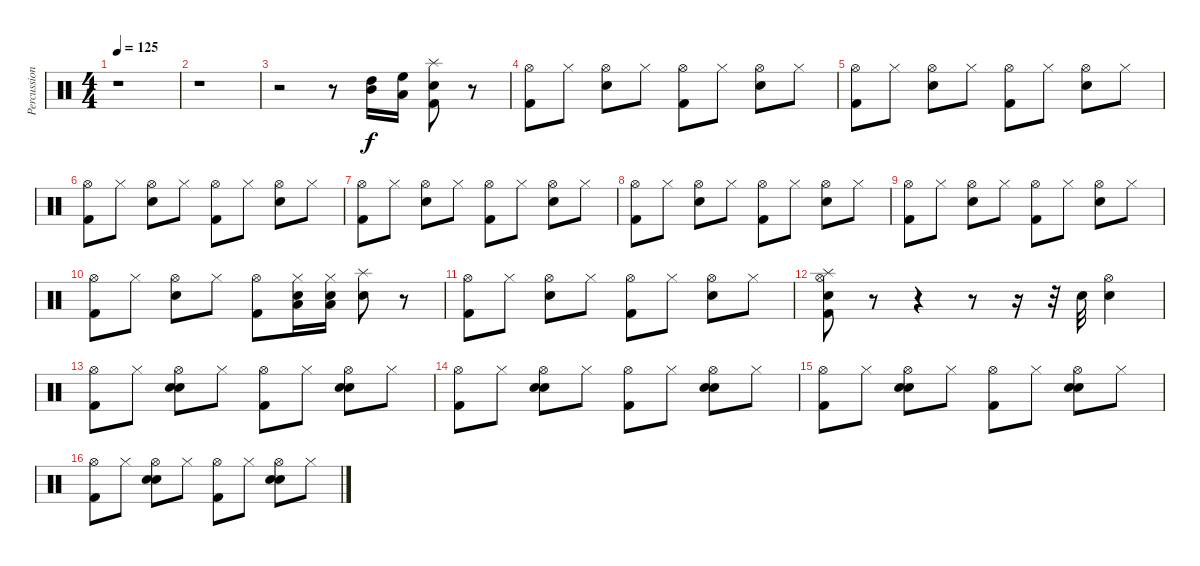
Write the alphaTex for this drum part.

\track ("Percussions" "Percussion") {instrument percussion}
\staff {score}
\articulation defaults
\ts (4 4)
\tempo 125
\clef neutral
\ks c
r.1{dy f} |
r.1 |
r.2 r.8 ("High Tom (hit)" "Mid Tom (hit)").16 ("High Floor Tom (hit)" "Low Tom (hit)").16 ("Splash (hit)" "Snare (hit) 2" "Kick (hit) 2").8 r.8 |
("Hi-Hat (open)" "Kick (hit) 2").8 "Hi-Hat (closed)".8 ("Hi-Hat (open)" "Snare (hit) 2").8 "Hi-Hat (closed)".8 ("Hi-Hat (open)" "Kick (hit) 2").8 "Hi-Hat (closed)".8 ("Hi-Hat (open)" "Snare (hit) 2").8 "Hi-Hat (closed)".8 |
("Hi-Hat (open)" "Kick (hit) 2").8 "Hi-Hat (closed)".8 ("Hi-Hat (open)" "Snare (hit) 2").8 "Hi-Hat (closed)".8 ("Hi-Hat (open)" "Kick (hit) 2").8 "Hi-Hat (closed)".8 ("Hi-Hat (open)" "Snare (hit) 2").8 "Hi-Hat (closed)".8 |
("Hi-Hat (open)" "Kick (hit) 2").8 "Hi-Hat (closed)".8 ("Hi-Hat (open)" "Snare (hit) 2").8 "Hi-Hat (closed)".8 ("Hi-Hat (open)" "Kick (hit) 2").8 "Hi-Hat (closed)".8 ("Hi-Hat (open)" "Snare (hit) 2").8 "Hi-Hat (closed)".8 |
("Hi-Hat (open)" "Kick (hit) 2").8 "Hi-Hat (closed)".8 ("Hi-Hat (open)" "Snare (hit) 2").8 "Hi-Hat (closed)".8 ("Hi-Hat (open)" "Kick (hit) 2").8 "Hi-Hat (closed)".8 ("Hi-Hat (open)" "Snare (hit) 2").8 "Hi-Hat (closed)".8 |
("Hi-Hat (open)" "Kick (hit) 2").8 "Hi-Hat (closed)".8 ("Hi-Hat (open)" "Snare (hit) 2").8 "Hi-Hat (closed)".8 ("Hi-Hat (open)" "Kick (hit) 2").8 "Hi-Hat (closed)".8 ("Hi-Hat (open)" "Snare (hit) 2").8 "Hi-Hat (closed)".8 |
("Hi-Hat (open)" "Kick (hit) 2").8 "Hi-Hat (closed)".8 ("Hi-Hat (open)" "Snare (hit) 2").8 "Hi-Hat (closed)".8 ("Hi-Hat (open)" "Kick (hit) 2").8 "Hi-Hat (closed)".8 ("Hi-Hat (open)" "Snare (hit) 2").8 "Hi-Hat (closed)".8 |
("Hi-Hat (open)" "Kick (hit) 2").8 "Hi-Hat (closed)".8 ("Hi-Hat (open)" "Snare (hit) 2").8 "Hi-Hat (closed)".8 ("Hi-Hat (open)" "Kick (hit) 2").8 ("Hi-Hat (closed)" "Low Tom (hit)" "Snare (hit) 2").16 ("Hi-Hat (closed)" "Low Tom (hit)" "Snare (hit) 2").16 ("Splash (hit)" "Snare (hit) 2").8 r.8 |
("Hi-Hat (open)" "Kick (hit) 2").8 "Hi-Hat (closed)".8 ("Hi-Hat (open)" "Snare (hit) 2").8 "Hi-Hat (closed)".8 ("Hi-Hat (open)" "Kick (hit) 2").8 "Hi-Hat (closed)".8 ("Hi-Hat (open)" "Snare (hit) 2").8 "Hi-Hat (closed)".8 |
("Hi-Hat (open)" "Splash (hit)" "Snare (hit) 2" "Kick (hit) 2").8 r.8 r.4 r.8 r.16 r.32 "Snare (hit) 2".32 ("Hi-Hat (open)" "Snare (hit) 2").4 |
("Hi-Hat (open)" "Kick (hit) 2").8 "Hi-Hat (closed)".8 ("Hi-Hat (open)" "Electric Snare (hit)" "Snare (hit) 2").8 "Hi-Hat (closed)".8 ("Hi-Hat (open)" "Kick (hit) 2").8 "Hi-Hat (closed)".8 ("Hi-Hat (open)" "Electric Snare (hit)" "Snare (hit) 2").8 "Hi-Hat (closed)".8 |
("Hi-Hat (open)" "Kick (hit) 2").8 "Hi-Hat (closed)".8 ("Hi-Hat (open)" "Electric Snare (hit)" "Snare (hit) 2").8 "Hi-Hat (closed)".8 ("Hi-Hat (open)" "Kick (hit) 2").8 "Hi-Hat (closed)".8 ("Hi-Hat (open)" "Electric Snare (hit)" "Snare (hit) 2").8 "Hi-Hat (closed)".8 |
("Hi-Hat (open)" "Kick (hit) 2").8 "Hi-Hat (closed)".8 ("Hi-Hat (open)" "Electric Snare (hit)" "Snare (hit) 2").8 "Hi-Hat (closed)".8 ("Hi-Hat (open)" "Kick (hit) 2").8 "Hi-Hat (closed)".8 ("Hi-Hat (open)" "Electric Snare (hit)" "Snare (hit) 2").8 "Hi-Hat (closed)".8 |
("Hi-Hat (open)" "Kick (hit) 2").8 "Hi-Hat (closed)".8 ("Hi-Hat (open)" "Electric Snare (hit)" "Snare (hit) 2").8 "Hi-Hat (closed)".8 ("Hi-Hat (open)" "Kick (hit) 2").8 "Hi-Hat (closed)".8 ("Hi-Hat (open)" "Electric Snare (hit)" "Snare (hit) 2").8 "Hi-Hat (closed)".8
